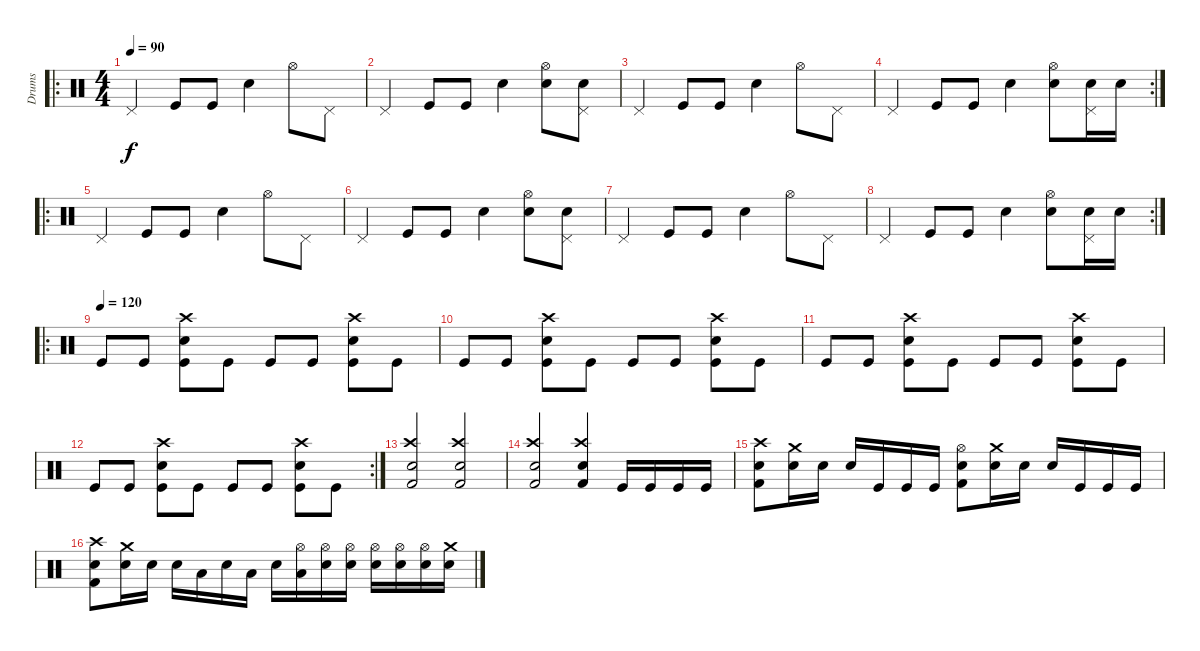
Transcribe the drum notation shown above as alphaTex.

\track ("Drums" "Drums") {instrument percussion}
\staff {score}
\articulation defaults
\ro
\ts (4 4)
\tempo 90
\clef neutral
\ks c "Pedal Hi-Hat (hit)".4{dy f} "Kick (hit)".8 "Kick (hit)".8 "Electric Snare (hit)".4 "Hi-Hat (open)".8 "Pedal Hi-Hat (hit)".8
|
"Pedal Hi-Hat (hit)".4 "Kick (hit)".8 "Kick (hit)".8 "Electric Snare (hit)".4 ("Hi-Hat (open)" "Electric Snare (hit)").8 ("Pedal Hi-Hat (hit)" "Electric Snare (hit)").8 |
"Pedal Hi-Hat (hit)".4 "Kick (hit)".8 "Kick (hit)".8 "Electric Snare (hit)".4 "Hi-Hat (open)".8 "Pedal Hi-Hat (hit)".8 |
\rc 2 "Pedal Hi-Hat (hit)".4 "Kick (hit)".8 "Kick (hit)".8 "Electric Snare (hit)".4
("Hi-Hat (open)" "Electric Snare (hit)").8 ("Pedal Hi-Hat (hit)" "Electric Snare (hit)").16 "Electric Snare (hit)".16 |
\ro "Pedal Hi-Hat (hit)".4 "Kick (hit)".8 "Kick (hit)".8 "Electric Snare (hit)".4 "Hi-Hat (open)".8 "Pedal Hi-Hat (hit)".8
|
"Pedal Hi-Hat (hit)".4 "Kick (hit)".8 "Kick (hit)".8 "Electric Snare (hit)".4 ("Hi-Hat (open)" "Electric Snare (hit)").8 ("Pedal Hi-Hat (hit)" "Electric Snare (hit)").8 |
"Pedal Hi-Hat (hit)".4 "Kick (hit)".8 "Kick (hit)".8 "Electric Snare (hit)".4 "Hi-Hat (open)".8 "Pedal Hi-Hat (hit)".8 |
\rc 2 "Pedal Hi-Hat (hit)".4 "Kick (hit)".8 "Kick (hit)".8 "Electric Snare (hit)".4
("Hi-Hat (open)" "Electric Snare (hit)").8 ("Pedal Hi-Hat (hit)" "Electric Snare (hit)").16 "Electric Snare (hit)".16 |
\ro
\tempo (120)
"Kick (hit)".8 "Kick (hit)".8 ("Kick (hit)" "Crash high (hit)" "Electric Snare (hit)").8 "Kick (hit)".8 "Kick (hit)".8 "Kick (hit)".8 ("Kick (hit)" "Crash high (hit)" "Electric Snare (hit)").8 "Kick (hit)".8 |
"Kick (hit)".8 "Kick (hit)".8 ("Kick (hit)" "Crash high (hit)" "Electric Snare (hit)").8 "Kick (hit)".8 "Kick (hit)".8 "Kick (hit)".8 ("Kick (hit)" "Crash high (hit)" "Electric Snare (hit)").8 "Kick (hit)".8 |
"Kick (hit)".8 "Kick (hit)".8 ("Kick (hit)" "Crash high (hit)" "Electric Snare (hit)").8 "Kick (hit)".8 "Kick (hit)".8 "Kick (hit)".8 ("Kick (hit)" "Crash high (hit)" "Electric Snare (hit)").8 "Kick (hit)".8 |
\rc 2 "Kick (hit)".8 "Kick (hit)".8
("Kick (hit)" "Crash high (hit)" "Electric Snare (hit)").8 "Kick (hit)".8 "Kick (hit)".8 "Kick (hit)".8 ("Kick (hit)" "Crash high (hit)" "Electric Snare (hit)").8 "Kick (hit)".8 |
("Crash high (hit)" "Electric Snare (hit)" "Kick (hit) 2").2 ("Crash high (hit)" "Electric Snare (hit)" "Kick (hit) 2").2 |
("Crash high (hit)" "Electric Snare (hit)" "Kick (hit) 2").2 ("Crash high (hit)" "Electric Snare (hit)" "Kick (hit) 2").4 "Kick (hit)".16 "Kick (hit)".16 "Kick (hit)".16 "Kick (hit)".16 |
("Crash high (hit)" "Electric Snare (hit)" "Kick (hit) 2").8 ("Crash medium (hit)" "Electric Snare (hit)").16 "Electric Snare (hit)".16 "Electric Snare (hit)".16 "Kick (hit)".16 "Kick (hit)".16 "Kick (hit)".16 ("Hi-Hat (open)" "Electric Snare (hit)" "Kick (hit) 2").8 ("Crash medium (hit)" "Electric Snare (hit)").16 "Electric Snare (hit)".16 "Electric Snare (hit)".16 "Kick (hit)".16 "Kick (hit)".16 "Kick (hit)".16 |
("Crash high (hit)" "Electric Snare (hit)" "Kick (hit) 2").8 ("Crash medium (hit)" "Electric Snare (hit)").16 "Electric Snare (hit)".16 "Electric Snare (hit)".16 "Low Floor Tom (hit)".16 "Electric Snare (hit)".16 "Low Floor Tom (hit)".16 "Electric Snare (hit)".16 ("Hi-Hat (open)" "Low Floor Tom (hit)").16 ("Hi-Hat (open)" "Electric Snare (hit)").16 ("Hi-Hat (open)" "Electric Snare (hit)").16 ("Hi-Hat (open)" "Electric Snare (hit)").16 ("Hi-Hat (open)" "Electric Snare (hit)").16 ("Hi-Hat (open)" "Electric Snare (hit)").16 ("Crash medium (hit)" "Electric Snare (hit)").16
